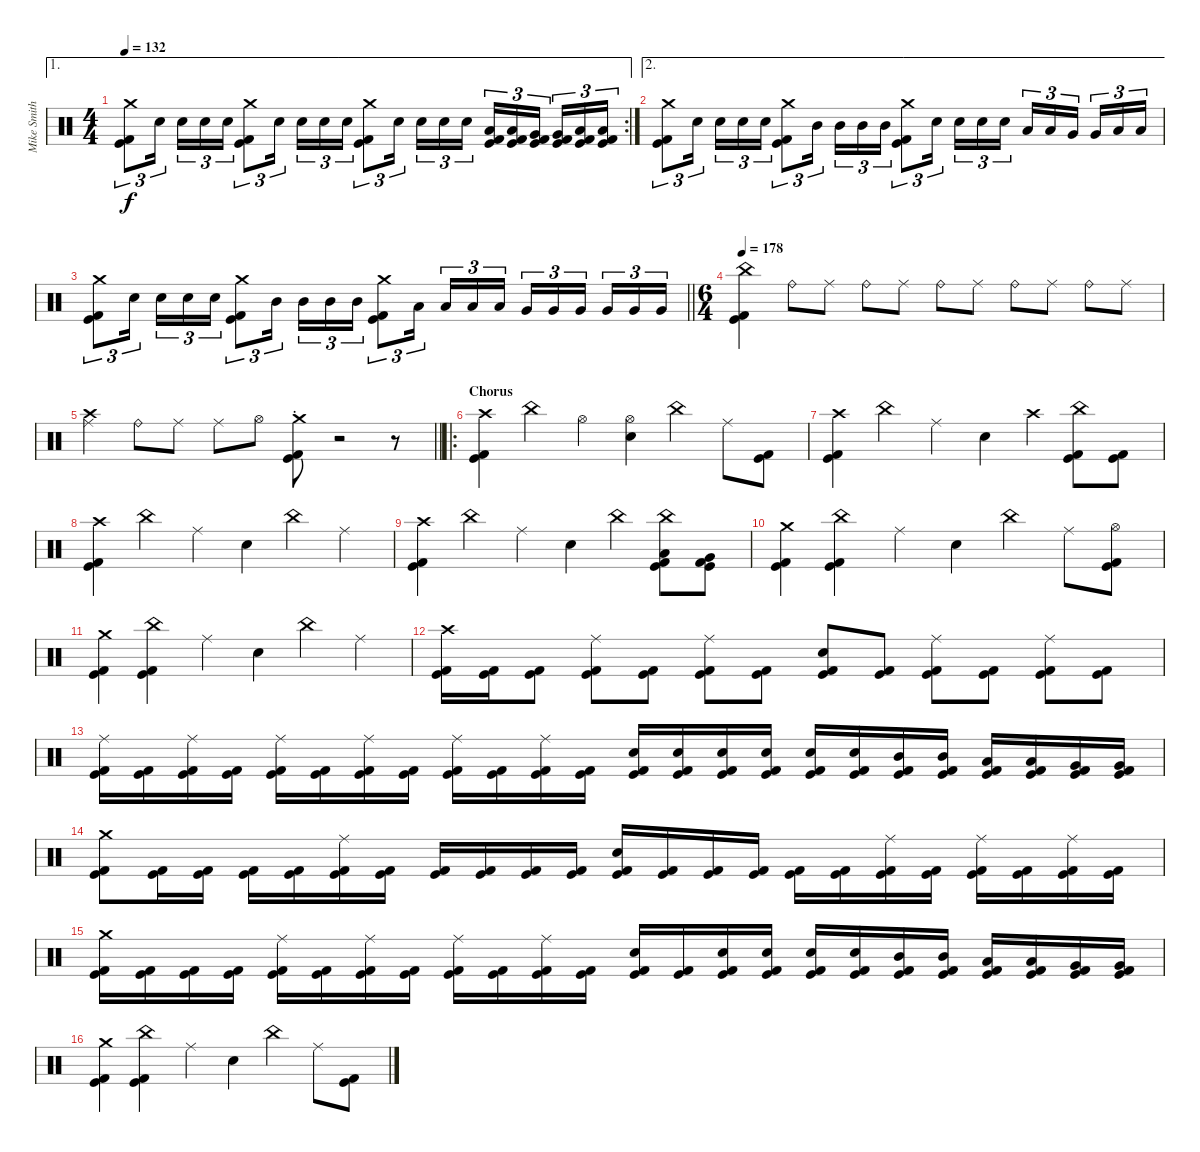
\track ("Mike Smith" "Mike Smith") {instrument percussion}
\staff {score}
\articulation defaults
\ae 1
\rc 2
\ts (4 4)
\tempo 132
\clef neutral
\ks c
("Crash medium (hit)" "Kick (hit)" "Kick (hit) 2").8{tu (3 2) dy f} "Electric Snare (hit)".16{tu (3 2) beam splitsecondary} "Electric Snare (hit)".16{tu (3 2)} "Electric Snare (hit)".16{tu (3 2)} "Electric Snare (hit)".16{tu (3 2)} ("Crash medium (hit)" "Kick (hit)" "Kick (hit) 2").8{tu (3 2)} "Electric Snare (hit)".16{tu (3 2) beam splitsecondary} "Electric Snare (hit)".16{tu (3 2)} "Electric Snare (hit)".16{tu (3 2)} "Electric Snare (hit)".16{tu (3 2)} ("Crash medium (hit)" "Kick (hit)" "Kick (hit) 2").8{tu (3 2)} "Electric Snare (hit)".16{tu (3 2) beam splitsecondary} "Electric Snare (hit)".16{tu (3 2)} "Electric Snare (hit)".16{tu (3 2)} "Electric Snare (hit)".16{tu (3 2)} ("Low Tom (hit)" "Kick (hit)" "Kick (hit) 2").16{tu (3 2)} ("Low Tom (hit)" "Kick (hit)" "Kick (hit) 2").16{tu (3 2)} ("Very Low Tom (hit)" "Kick (hit)" "Kick (hit) 2").16{tu (3 2) beam splitsecondary} ("Very Low Tom (hit)" "Kick (hit)" "Kick (hit) 2").16{tu (3 2)} ("Low Floor Tom (hit)" "Kick (hit)" "Kick (hit) 2").16{tu (3 2)} ("Low Floor Tom (hit)" "Kick (hit)" "Kick (hit) 2").16{tu (3 2)} |
\ae 2
("Crash medium (hit)" "Kick (hit)" "Kick (hit) 2").8{tu (3 2)} "Electric Snare (hit)".16{tu (3 2) beam splitsecondary} "Electric Snare (hit)".16{tu (3 2)} "Electric Snare (hit)".16{tu (3 2)} "Electric Snare (hit)".16{tu (3 2)} ("Crash medium (hit)" "Kick (hit)" "Kick (hit) 2").8{tu (3 2)} "Mid Tom (hit)".16{tu (3 2) beam splitsecondary} "Mid Tom (hit)".16{tu (3 2)} "Mid Tom (hit)".16{tu (3 2)} "Mid Tom (hit)".16{tu (3 2)} ("Crash medium (hit)" "Kick (hit)" "Kick (hit) 2").8{tu (3 2)} "Electric Snare (hit)".16{tu (3 2) beam splitsecondary} "Electric Snare (hit)".16{tu (3 2)} "Electric Snare (hit)".16{tu (3 2)} "Electric Snare (hit)".16{tu (3 2)} "Low Tom (hit)".16{tu (3 2)} "Low Tom (hit)".16{tu (3 2)} "Very Low Tom (hit)".16{tu (3 2) beam splitsecondary} "Very Low Tom (hit)".16{tu (3 2)} "Low Floor Tom (hit)".16{tu (3 2)} "Low Floor Tom (hit)".16{tu (3 2)} |
\barLineRight lightlight
("Crash medium (hit)" "Kick (hit)" "Kick (hit) 2").8{tu (3 2)} "Electric Snare (hit)".16{tu (3 2) beam splitsecondary} "Electric Snare (hit)".16{tu (3 2)} "Electric Snare (hit)".16{tu (3 2)} "Electric Snare (hit)".16{tu (3 2)} ("Crash medium (hit)" "Kick (hit)" "Kick (hit) 2").8{tu (3 2)} "Mid Tom (hit)".16{tu (3 2) beam splitsecondary} "Mid Tom (hit)".16{tu (3 2)} "Mid Tom (hit)".16{tu (3 2)} "Mid Tom (hit)".16{tu (3 2)} ("Crash medium (hit)" "Kick (hit)" "Kick (hit) 2").8{tu (3 2)} "Low Tom (hit)".16{tu (3 2) beam splitsecondary} "Low Tom (hit)".16{tu (3 2)} "Low Tom (hit)".16{tu (3 2)} "Low Tom (hit)".16{tu (3 2)} "Very Low Tom (hit)".16{tu (3 2)} "Very Low Tom (hit)".16{tu (3 2)} "Very Low Tom (hit)".16{tu (3 2) beam splitsecondary} "Very Low Tom (hit)".16{tu (3 2)} "Very Low Tom (hit)".16{tu (3 2)} "Very Low Tom (hit)".16{tu (3 2)} |
\ts (6 4)
\tempo 178
("China (hit)" "Kick (hit)" "Kick (hit) 2").4 "Ride (bell)".8 "Ride (middle)".8 "Ride (bell)".8 "Ride (middle)".8 "Ride (bell)".8 "Ride (middle)".8 "Ride (bell)".8 "Ride (middle)".8 "Ride (bell)".8 "Ride (middle)".8 |
\barLineRight lightlight
("Ride (middle)" "Crash high (hit)").4 "Ride (bell)".8 "Ride (middle)".8 "Ride (middle)".8 "Hi-Hat (open)".8 ("Crash medium (hit)"{st} "Kick (hit)" "Kick (hit) 2").8 r.2 r.8 |
\ro
\section ("" "Chorus")
("Crash high (hit)" "Kick (hit)" "Kick (hit) 2").4 "China (hit)".4 "Hi-Hat (open)".4 ("Hi-Hat (open)" "Electric Snare (hit)").4 "China (hit)".4 "Ride (middle)".8 ("Kick (hit) 2" "Kick (hit)").8 |
("Crash high (hit)" "Kick (hit)" "Kick (hit) 2").4 "China (hit)".4 "Ride (middle)".4 "Electric Snare (hit)".4 "Crash high (hit)".4 ("China (hit)" "Kick (hit)" "Kick (hit) 2").8 ("Kick (hit)" "Kick (hit) 2").8 |
("Crash high (hit)" "Kick (hit)" "Kick (hit) 2").4 "China (hit)".4 "Ride (middle)".4 "Electric Snare (hit)".4 "China (hit)".4 "Ride (middle)".4 |
("Crash high (hit)" "Kick (hit)" "Kick (hit) 2").4 "China (hit)".4 "Ride (middle)".4 "Electric Snare (hit)".4 "China (hit)".4 ("China (hit)" "Low Tom (hit)" "Kick (hit)" "Kick (hit) 2").8 ("Very Low Tom (hit)" "Kick (hit)" "Kick (hit) 2").8 |
("Crash medium (hit)" "Kick (hit)" "Kick (hit) 2").4 ("China (hit)" "Kick (hit)" "Kick (hit) 2").4 "Ride (middle)".4 "Electric Snare (hit)".4 "China (hit)".4 "Ride (middle)".8 ("Hi-Hat (open)" "Kick (hit)" "Kick (hit) 2").8 |
("Crash medium (hit)" "Kick (hit)" "Kick (hit) 2").4 ("China (hit)" "Kick (hit)" "Kick (hit) 2").4 "Ride (middle)".4 "Electric Snare (hit)".4 "China (hit)".4 "Ride (middle)".4 |
("Crash high (hit)" "Kick (hit)" "Kick (hit) 2").16 ("Kick (hit)" "Kick (hit) 2").16 ("Kick (hit)" "Kick (hit) 2").8 ("Ride (middle)" "Kick (hit)" "Kick (hit) 2").8 ("Kick (hit)" "Kick (hit) 2").8 ("Ride (middle)" "Kick (hit)" "Kick (hit) 2").8 ("Kick (hit)" "Kick (hit) 2").8 ("Electric Snare (hit)" "Kick (hit)" "Kick (hit) 2").8 ("Kick (hit)" "Kick (hit) 2").8 ("Ride (middle)" "Kick (hit)" "Kick (hit) 2").8 ("Kick (hit)" "Kick (hit) 2").8 ("Ride (middle)" "Kick (hit)" "Kick (hit) 2").8 ("Kick (hit)" "Kick (hit) 2").8 |
("Ride (middle)" "Kick (hit)" "Kick (hit) 2").16 ("Kick (hit)" "Kick (hit) 2").16 ("Ride (middle)" "Kick (hit)" "Kick (hit) 2").16 ("Kick (hit)" "Kick (hit) 2").16 ("Ride (middle)" "Kick (hit)" "Kick (hit) 2").16 ("Kick (hit)" "Kick (hit) 2").16 ("Ride (middle)" "Kick (hit)" "Kick (hit) 2").16 ("Kick (hit)" "Kick (hit) 2").16 ("Ride (middle)" "Kick (hit)" "Kick (hit) 2").16 ("Kick (hit)" "Kick (hit) 2").16 ("Ride (middle)" "Kick (hit)" "Kick (hit) 2").16 ("Kick (hit)" "Kick (hit) 2").16 ("Electric Snare (hit)" "Kick (hit)" "Kick (hit) 2").16 ("Electric Snare (hit)" "Kick (hit)" "Kick (hit) 2").16 ("Electric Snare (hit)" "Kick (hit)" "Kick (hit) 2").16 ("Electric Snare (hit)" "Kick (hit)" "Kick (hit) 2").16 ("Electric Snare (hit)" "Kick (hit)" "Kick (hit) 2").16 ("Electric Snare (hit)" "Kick (hit)" "Kick (hit) 2").16 ("Mid Tom (hit)" "Kick (hit)" "Kick (hit) 2").16 ("Mid Tom (hit)" "Kick (hit)" "Kick (hit) 2").16 ("Low Tom (hit)" "Kick (hit)" "Kick (hit) 2").16 ("Low Tom (hit)" "Kick (hit)" "Kick (hit) 2").16 ("Very Low Tom (hit)" "Kick (hit)" "Kick (hit) 2").16 ("Very Low Tom (hit)" "Kick (hit)" "Kick (hit) 2").16 |
("Crash medium (hit)" "Kick (hit)" "Kick (hit) 2").8 ("Kick (hit)" "Kick (hit) 2").16 ("Kick (hit)" "Kick (hit) 2").16 ("Kick (hit)" "Kick (hit) 2").16 ("Kick (hit)" "Kick (hit) 2").16 ("Ride (middle)" "Kick (hit)" "Kick (hit) 2").16 ("Kick (hit)" "Kick (hit) 2").16 ("Kick (hit)" "Kick (hit) 2").16 ("Kick (hit)" "Kick (hit) 2").16 ("Kick (hit)" "Kick (hit) 2").16 ("Kick (hit)" "Kick (hit) 2").16 ("Electric Snare (hit)" "Kick (hit)" "Kick (hit) 2").16 ("Kick (hit)" "Kick (hit) 2").16 ("Kick (hit)" "Kick (hit) 2").16 ("Kick (hit)" "Kick (hit) 2").16 ("Kick (hit)" "Kick (hit) 2").16 ("Kick (hit)" "Kick (hit) 2").16 ("Ride (middle)" "Kick (hit)" "Kick (hit) 2").16 ("Kick (hit)" "Kick (hit) 2").16 ("Ride (middle)" "Kick (hit)" "Kick (hit) 2").16 ("Kick (hit)" "Kick (hit) 2").16 ("Ride (middle)" "Kick (hit)" "Kick (hit) 2").16 ("Kick (hit)" "Kick (hit) 2").16 |
("Crash medium (hit)" "Kick (hit)" "Kick (hit) 2").16 ("Kick (hit)" "Kick (hit) 2").16 ("Kick (hit)" "Kick (hit) 2").16 ("Kick (hit)" "Kick (hit) 2").16 ("Ride (middle)" "Kick (hit)" "Kick (hit) 2").16 ("Kick (hit)" "Kick (hit) 2").16 ("Ride (middle)" "Kick (hit)" "Kick (hit) 2").16 ("Kick (hit)" "Kick (hit) 2").16 ("Ride (middle)" "Kick (hit)" "Kick (hit) 2").16 ("Kick (hit)" "Kick (hit) 2").16 ("Ride (middle)" "Kick (hit)" "Kick (hit) 2").16 ("Kick (hit)" "Kick (hit) 2").16 ("Electric Snare (hit)" "Kick (hit)" "Kick (hit) 2").16 ("Kick (hit)" "Kick (hit) 2").16 ("Electric Snare (hit)" "Kick (hit)" "Kick (hit) 2").16 ("Electric Snare (hit)" "Kick (hit)" "Kick (hit) 2").16 ("Electric Snare (hit)" "Kick (hit)" "Kick (hit) 2").16 ("Electric Snare (hit)" "Kick (hit)" "Kick (hit) 2").16 ("Mid Tom (hit)" "Kick (hit)" "Kick (hit) 2").16 ("Mid Tom (hit)" "Kick (hit)" "Kick (hit) 2").16 ("Low Tom (hit)" "Kick (hit)" "Kick (hit) 2").16 ("Low Tom (hit)" "Kick (hit)" "Kick (hit) 2").16 ("Very Low Tom (hit)" "Kick (hit)" "Kick (hit) 2").16 ("Very Low Tom (hit)" "Kick (hit)" "Kick (hit) 2").16 |
("Crash medium (hit)" "Kick (hit)" "Kick (hit) 2").4 ("China (hit)" "Kick (hit)" "Kick (hit) 2").4 "Ride (middle)".4 "Electric Snare (hit)".4 "China (hit)".4 "Ride (middle)".8 ("Kick (hit)" "Kick (hit) 2").8
